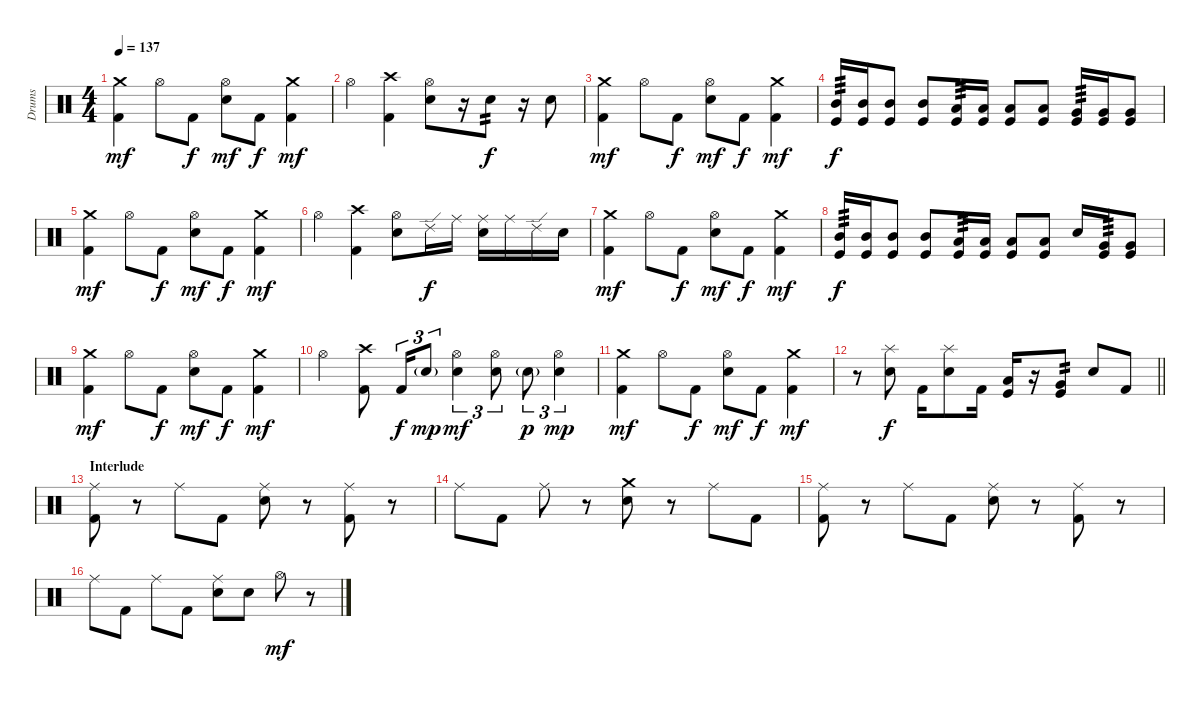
\track ("Drums" "Drums") {instrument percussion}
\staff {score}
\articulation defaults
\ts (4 4)
\tempo 137
\clef neutral
\ks c
("Crash medium (hit)" "Kick (hit) 2").4{dy mf} "Hi-Hat (open)".8 "Kick (hit) 2".8{dy f} ("Hi-Hat (open)" "Electric Snare (hit)").8{dy mf} "Kick (hit) 2".8{dy f} ("Crash medium (hit)" "Kick (hit) 2").4{dy mf} |
"Hi-Hat (open)".4 ("Crash high (hit)" "Kick (hit) 2").4 ("Hi-Hat (open)" "Electric Snare (hit)").8 r.16 "Electric Snare (hit)".8{tp 2 dy f} r.16 "Electric Snare (hit)".8 |
("Crash medium (hit)" "Kick (hit) 2").4{dy mf} "Hi-Hat (open)".8 "Kick (hit) 2".8{dy f} ("Hi-Hat (open)" "Electric Snare (hit)").8{dy mf} "Kick (hit) 2".8{dy f} ("Crash medium (hit)" "Kick (hit) 2").4{dy mf} |
("Mid Tom (hit)" "Kick (hit)").16{tp 3 dy f} ("Mid Tom (hit)" "Kick (hit)").16 ("Mid Tom (hit)" "Kick (hit)").8 ("Mid Tom (hit)" "Kick (hit)").8 ("Low Tom (hit)" "Kick (hit)").16{tp 3} ("Low Tom (hit)" "Kick (hit)").16 ("Low Tom (hit)" "Kick (hit)").8 ("Low Tom (hit)" "Kick (hit)").8 ("Very Low Tom (hit)" "Kick (hit)").16{tp 3} ("Very Low Tom (hit)" "Kick (hit)").16 ("Very Low Tom (hit)" "Kick (hit)").8 |
("Crash medium (hit)" "Kick (hit) 2").4{dy mf} "Hi-Hat (open)".8 "Kick (hit) 2".8{dy f} ("Hi-Hat (open)" "Electric Snare (hit)").8{dy mf} "Kick (hit) 2".8{dy f} ("Crash medium (hit)" "Kick (hit) 2").4{dy mf} |
"Hi-Hat (open)".4 ("Crash high (hit)" "Kick (hit) 2").4 ("Hi-Hat (open)" "Electric Snare (hit)").8 "Ride (edge) 2".16{dy f} "Ride (middle)".16 ("Ride (middle)" "Electric Snare (hit)").16 "Ride (middle)".16 "Ride (edge) 2".16 "Electric Snare (hit)".16 |
("Crash medium (hit)" "Kick (hit) 2").4{dy mf} "Hi-Hat (open)".8 "Kick (hit) 2".8{dy f} ("Hi-Hat (open)" "Electric Snare (hit)").8{dy mf} "Kick (hit) 2".8{dy f} ("Crash medium (hit)" "Kick (hit) 2").4{dy mf} |
("Mid Tom (hit)" "Kick (hit)").16{tp 3 dy f} ("Mid Tom (hit)" "Kick (hit)").16 ("Mid Tom (hit)" "Kick (hit)").8 ("Mid Tom (hit)" "Kick (hit)").8 ("Low Tom (hit)" "Kick (hit)").16{tp 3} ("Low Tom (hit)" "Kick (hit)").16 ("Low Tom (hit)" "Kick (hit)").8 ("Low Tom (hit)" "Kick (hit)").8 "Electric Snare (hit)".16 ("Very Low Tom (hit)" "Kick (hit)").16{tp 3} ("Very Low Tom (hit)" "Kick (hit)").8 |
("Crash medium (hit)" "Kick (hit) 2").4{dy mf} "Hi-Hat (open)".8 "Kick (hit) 2".8{dy f} ("Hi-Hat (open)" "Electric Snare (hit)").8{dy mf} "Kick (hit) 2".8{dy f} ("Crash medium (hit)" "Kick (hit) 2").4{dy mf} |
"Hi-Hat (open)".4 ("Crash high (hit)" "Kick (hit) 2").8 "Kick (hit) 2".16{tu (3 2) dy f} "Electric Snare (hit)"{g}.8{tu (3 2) dy mp} ("Hi-Hat (open)" "Electric Snare (hit)").4{tu (3 2) dy mf} ("Hi-Hat (open)" "Electric Snare (hit)").8{tu (3 2)} "Electric Snare (hit)"{g}.8{tu (3 2) dy p} ("Hi-Hat (open)" "Electric Snare (hit)").4{tu (3 2) dy mp} |
("Crash medium (hit)" "Kick (hit) 2").4{dy mf} "Hi-Hat (open)".8 "Kick (hit) 2".8{dy f} ("Hi-Hat (open)" "Electric Snare (hit)").8{dy mf} "Kick (hit) 2".8{dy f} ("Crash medium (hit)" "Kick (hit) 2").4{dy mf} |
\barLineRight lightlight
r.8 ("Splash (hit)" "Electric Snare (hit)").8{dy f} "Kick (hit) 2".16 ("Splash (hit)" "Electric Snare (hit)").8 "Kick (hit) 2".16 ("Low Tom (hit)" "Kick (hit)").16 r.16 ("Very Low Tom (hit)" "Kick (hit)").8{tp 2} "Electric Snare (hit)".8 "Kick (hit) 2".8 |
\section ("" "Interlude")
("Ride (middle)" "Kick (hit) 2").8 r.8 "Ride (middle)".8 "Kick (hit) 2".8 ("Ride (middle)" "Electric Snare (hit)").8 r.8 ("Ride (middle)" "Kick (hit) 2").8 r.8 |
"Ride (middle)".8 "Kick (hit) 2".8 "Ride (middle)".8 r.8 ("Crash medium (hit)" "Electric Snare (hit)").8 r.8 "Ride (middle)".8 "Kick (hit) 2".8 |
("Ride (middle)" "Kick (hit) 2").8 r.8 "Ride (middle)".8 "Kick (hit) 2".8 ("Ride (middle)" "Electric Snare (hit)").8 r.8 ("Ride (middle)" "Kick (hit) 2").8 r.8 |
"Ride (middle)".8 "Kick (hit) 2".8 "Ride (middle)".8 "Kick (hit) 2".8 ("Ride (middle)" "Electric Snare (hit)").8 "Electric Snare (hit)".8 "Hi-Hat (open)".8{dy mf} r.8
